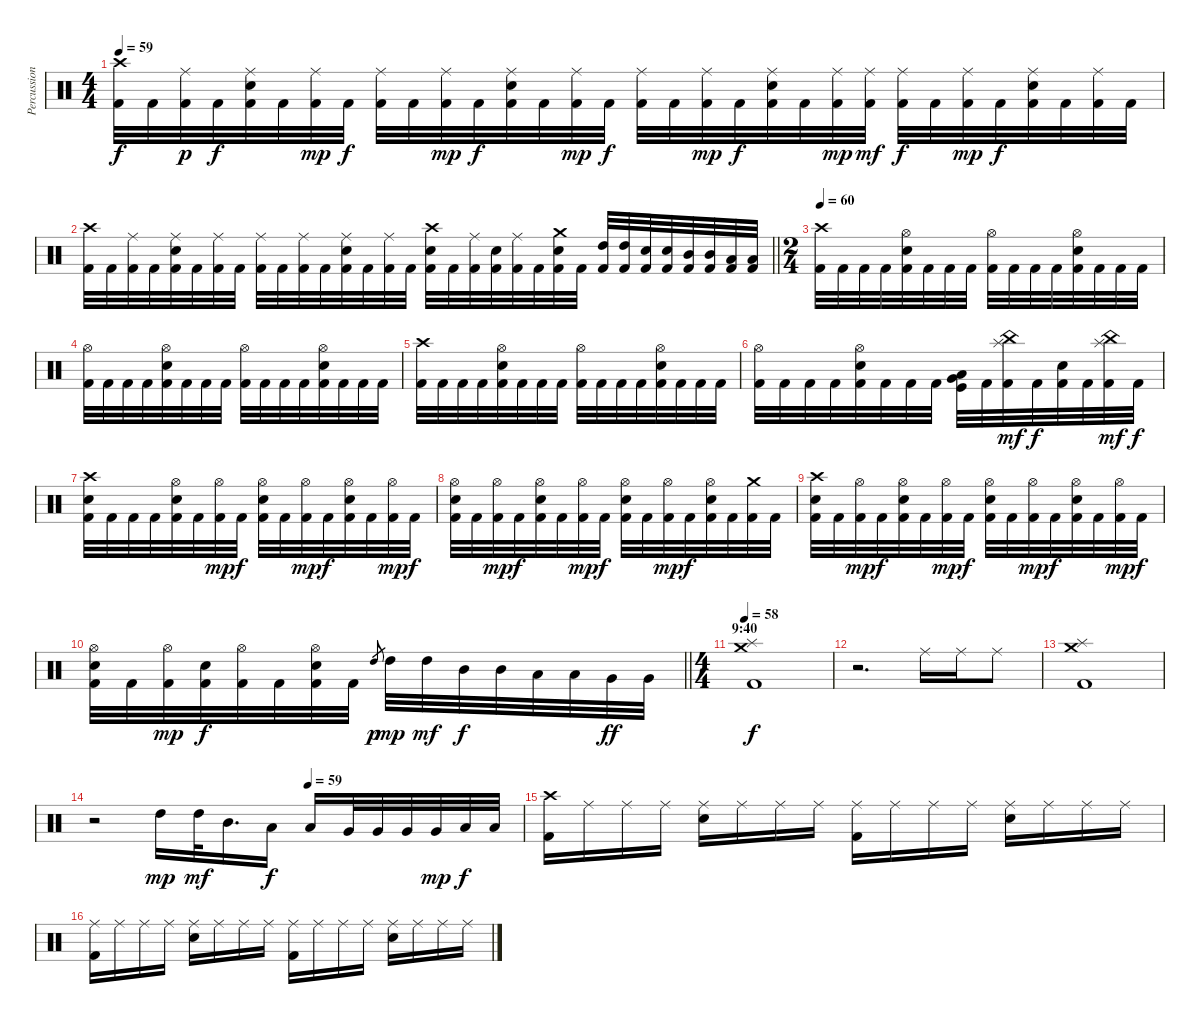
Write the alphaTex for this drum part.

\track ("Percussions" "Percussion") {instrument percussion}
\staff {score}
\articulation defaults
\ts (4 4)
\tempo 59
\clef neutral
\ks c
("Crash high (hit)" "Kick (hit) 2").32{dy f} "Kick (hit) 2".32 ("Ride (middle)" "Kick (hit) 2").32{dy p} "Kick (hit) 2".32{dy f} ("Ride (middle)" "Snare (hit) 2" "Kick (hit) 2").32 "Kick (hit) 2".32 ("Ride (middle)" "Kick (hit) 2").32{dy mp} "Kick (hit) 2".32{dy f} ("Ride (middle)" "Kick (hit) 2").32 "Kick (hit) 2".32 ("Ride (middle)" "Kick (hit) 2").32{dy mp} "Kick (hit) 2".32{dy f} ("Ride (middle)" "Snare (hit) 2" "Kick (hit) 2").32 "Kick (hit) 2".32 ("Ride (middle)" "Kick (hit) 2").32{dy mp} "Kick (hit) 2".32{dy f} ("Ride (middle)" "Kick (hit) 2").32 "Kick (hit) 2".32 ("Ride (middle)" "Kick (hit) 2").32{dy mp} "Kick (hit) 2".32{dy f} ("Ride (middle)" "Snare (hit) 2" "Kick (hit) 2").32 "Kick (hit) 2".32 ("Ride (middle)" "Kick (hit) 2").32{dy mp} ("Ride (middle)" "Kick (hit) 2").32{dy mf} ("Ride (middle)" "Kick (hit) 2").32{dy f} "Kick (hit) 2".32 ("Ride (middle)" "Kick (hit) 2").32{dy mp} "Kick (hit) 2".32{dy f} ("Ride (middle)" "Snare (hit) 2" "Kick (hit) 2").32 "Kick (hit) 2".32 ("Ride (middle)" "Kick (hit) 2").32 "Kick (hit) 2".32 |
\barLineRight lightlight
("Crash high (hit)" "Kick (hit) 2").32 "Kick (hit) 2".32 ("Ride (middle)" "Kick (hit) 2").32 "Kick (hit) 2".32 ("Ride (middle)" "Snare (hit) 2" "Kick (hit) 2").32 "Kick (hit) 2".32 ("Ride (middle)" "Kick (hit) 2").32 "Kick (hit) 2".32 ("Ride (middle)" "Kick (hit) 2").32 "Kick (hit) 2".32 ("Ride (middle)" "Kick (hit) 2").32 "Kick (hit) 2".32 ("Ride (middle)" "Snare (hit) 2" "Kick (hit) 2").32 "Kick (hit) 2".32 ("Ride (middle)" "Kick (hit) 2").32 "Kick (hit) 2".32 ("Crash high (hit)" "Snare (hit) 2" "Kick (hit) 2").32 "Kick (hit) 2".32 ("Ride (middle)" "Kick (hit) 2").32 ("Snare (hit) 2" "Kick (hit) 2").32 ("Ride (middle)" "Kick (hit) 2").32 "Kick (hit) 2".32 ("Crash medium (hit)" "Snare (hit) 2" "Kick (hit) 2").32 "Kick (hit) 2".32 ("High Tom (hit)" "Kick (hit) 2").32 ("High Tom (hit)" "Kick (hit) 2").32 ("Snare (hit) 2" "Kick (hit) 2").32 ("Snare (hit) 2" "Kick (hit) 2").32 ("Mid Tom (hit)" "Kick (hit) 2").32 ("Mid Tom (hit)" "Kick (hit) 2").32 ("Low Tom (hit)" "Kick (hit) 2").32 ("Low Tom (hit)" "Kick (hit) 2").32 |
\ts (2 4)
\tempo 60
("Crash high (hit)" "Kick (hit) 2").32 "Kick (hit) 2".32 "Kick (hit) 2".32 "Kick (hit) 2".32 ("Hi-Hat (open)" "Snare (hit) 2" "Kick (hit) 2").32 "Kick (hit) 2".32 "Kick (hit) 2".32 "Kick (hit) 2".32 ("Hi-Hat (open)" "Kick (hit) 2").32 "Kick (hit) 2".32 "Kick (hit) 2".32 "Kick (hit) 2".32 ("Hi-Hat (open)" "Snare (hit) 2" "Kick (hit) 2").32 "Kick (hit) 2".32 "Kick (hit) 2".32 "Kick (hit) 2".32 |
("Hi-Hat (open)" "Kick (hit) 2").32 "Kick (hit) 2".32 "Kick (hit) 2".32 "Kick (hit) 2".32 ("Hi-Hat (open)" "Snare (hit) 2" "Kick (hit) 2").32 "Kick (hit) 2".32 "Kick (hit) 2".32 "Kick (hit) 2".32 ("Hi-Hat (open)" "Kick (hit) 2").32 "Kick (hit) 2".32 "Kick (hit) 2".32 "Kick (hit) 2".32 ("Hi-Hat (open)" "Snare (hit) 2" "Kick (hit) 2").32 "Kick (hit) 2".32 "Kick (hit) 2".32 "Kick (hit) 2".32 |
("Crash high (hit)" "Kick (hit) 2").32 "Kick (hit) 2".32 "Kick (hit) 2".32 "Kick (hit) 2".32 ("Hi-Hat (open)" "Snare (hit) 2" "Kick (hit) 2").32 "Kick (hit) 2".32 "Kick (hit) 2".32 "Kick (hit) 2".32 ("Hi-Hat (open)" "Kick (hit) 2").32 "Kick (hit) 2".32 "Kick (hit) 2".32 "Kick (hit) 2".32 ("Hi-Hat (open)" "Snare (hit) 2" "Kick (hit) 2").32 "Kick (hit) 2".32 "Kick (hit) 2".32 "Kick (hit) 2".32 |
("Hi-Hat (open)" "Kick (hit) 2").32 "Kick (hit) 2".32 "Kick (hit) 2".32 "Kick (hit) 2".32 ("Hi-Hat (open)" "Snare (hit) 2" "Kick (hit) 2").32 "Kick (hit) 2".32 "Kick (hit) 2".32 "Kick (hit) 2".32 ("Low Floor Tom (hit)" "Very Low Tom (hit)" "Kick (hit)").32 "Kick (hit) 2".32 ("China (hit)" "Splash (hit)" "Kick (hit) 2").32{dy mf} "Kick (hit) 2".32{dy f} ("Snare (hit) 2" "Kick (hit) 2").32 "Kick (hit) 2".32 ("China (hit)" "Splash (hit)" "Kick (hit) 2").32{dy mf} "Kick (hit) 2".32{dy f} |
("Crash high (hit)" "Snare (hit) 2" "Kick (hit) 2").32 "Kick (hit) 2".32 "Kick (hit) 2".32 "Kick (hit) 2".32 ("Hi-Hat (open)" "Snare (hit) 2" "Kick (hit) 2").32 "Kick (hit) 2".32 ("Hi-Hat (open)" "Kick (hit) 2").32{dy mp} "Kick (hit) 2".32{dy f} ("Hi-Hat (open)" "Snare (hit) 2" "Kick (hit) 2").32 "Kick (hit) 2".32 ("Hi-Hat (open)" "Kick (hit) 2").32{dy mp} "Kick (hit) 2".32{dy f} ("Hi-Hat (open)" "Snare (hit) 2" "Kick (hit) 2").32 "Kick (hit) 2".32 ("Hi-Hat (open)" "Kick (hit) 2").32{dy mp} "Kick (hit) 2".32{dy f} |
("Hi-Hat (open)" "Snare (hit) 2" "Kick (hit) 2").32 "Kick (hit) 2".32 ("Hi-Hat (open)" "Kick (hit) 2").32{dy mp} "Kick (hit) 2".32{dy f} ("Hi-Hat (open)" "Snare (hit) 2" "Kick (hit) 2").32 "Kick (hit) 2".32 ("Hi-Hat (open)" "Kick (hit) 2").32{dy mp} "Kick (hit) 2".32{dy f} ("Hi-Hat (open)" "Snare (hit) 2" "Kick (hit) 2").32 "Kick (hit) 2".32 ("Hi-Hat (open)" "Kick (hit) 2").32{dy mp} "Kick (hit) 2".32{dy f} ("Hi-Hat (open)" "Snare (hit) 2" "Kick (hit) 2").32 "Kick (hit) 2".32 ("Crash medium (hit)" "Kick (hit) 2").32 "Kick (hit) 2".32 |
("Crash high (hit)" "Snare (hit) 2" "Kick (hit) 2").32 "Kick (hit) 2".32 ("Hi-Hat (open)" "Kick (hit) 2").32{dy mp} "Kick (hit) 2".32{dy f} ("Hi-Hat (open)" "Snare (hit) 2" "Kick (hit) 2").32 "Kick (hit) 2".32 ("Hi-Hat (open)" "Kick (hit) 2").32{dy mp} "Kick (hit) 2".32{dy f} ("Hi-Hat (open)" "Snare (hit) 2" "Kick (hit) 2").32 "Kick (hit) 2".32 ("Hi-Hat (open)" "Kick (hit) 2").32{dy mp} "Kick (hit) 2".32{dy f} ("Hi-Hat (open)" "Snare (hit) 2" "Kick (hit) 2").32 "Kick (hit) 2".32 ("Hi-Hat (open)" "Kick (hit) 2").32{dy mp} "Kick (hit) 2".32{dy f} |
\barLineRight lightlight
("Hi-Hat (open)" "Snare (hit) 2" "Kick (hit) 2").32 "Kick (hit) 2".32 ("Hi-Hat (open)" "Kick (hit) 2").32{dy mp} ("Snare (hit) 2" "Kick (hit) 2").32{dy f} ("Hi-Hat (open)" "Kick (hit) 2").32 "Kick (hit) 2".32 ("Hi-Hat (open)" "Snare (hit) 2" "Kick (hit) 2").32 "Kick (hit) 2".32 "High Tom (hit)".8{gr dy p} "High Tom (hit)".32{dy mp} "High Tom (hit)".32{dy mf} "Mid Tom (hit)".32{dy f} "Mid Tom (hit)".32 "Low Tom (hit)".32 "Low Tom (hit)".32 "Very Low Tom (hit)".32{dy ff} "Very Low Tom (hit)".32 |
\ts (4 4)
\section ("" "9:40")
\tempo 58
("Splash (hit)" "Crash medium (hit)" "Kick (hit) 2").1{dy f} |
r.2{d} "Ride (middle)".16 "Ride (middle)".16 "Ride (middle)".8 |
("Splash (hit)" "Crash medium (hit)" "Kick (hit) 2").1 |
\tempo (59 0.5)
r.2 "High Tom (hit)".16{dy mp} "High Tom (hit)".32{dy mf} "Mid Tom (hit)".16{d} "Low Tom (hit)".16{dy f} "Low Tom (hit)".16 "Very Low Tom (hit)".32 "Very Low Tom (hit)".32 "Very Low Tom (hit)".32 "Very Low Tom (hit)".32{dy mp} "Low Floor Tom (hit)".32{dy f} "Low Floor Tom (hit)".32 |
("Crash high (hit)" "Kick (hit) 2").16 "Ride (middle)".16 "Ride (middle)".16 "Ride (middle)".16 ("Ride (middle)" "Snare (hit) 2").16 "Ride (middle)".16 "Ride (middle)".16 "Ride (middle)".16 ("Ride (middle)" "Kick (hit) 2").16 "Ride (middle)".16 "Ride (middle)".16 "Ride (middle)".16 ("Ride (middle)" "Snare (hit) 2").16 "Ride (middle)".16 "Ride (middle)".16 "Ride (middle)".16 |
("Ride (middle)" "Kick (hit) 2").16 "Ride (middle)".16 "Ride (middle)".16 "Ride (middle)".16 ("Ride (middle)" "Snare (hit) 2").16 "Ride (middle)".16 "Ride (middle)".16 "Ride (middle)".16 ("Ride (middle)" "Kick (hit) 2").16 "Ride (middle)".16 "Ride (middle)".16 "Ride (middle)".16 ("Ride (middle)" "Snare (hit) 2").16 "Ride (middle)".16 "Ride (middle)".16 "Ride (middle)".16
